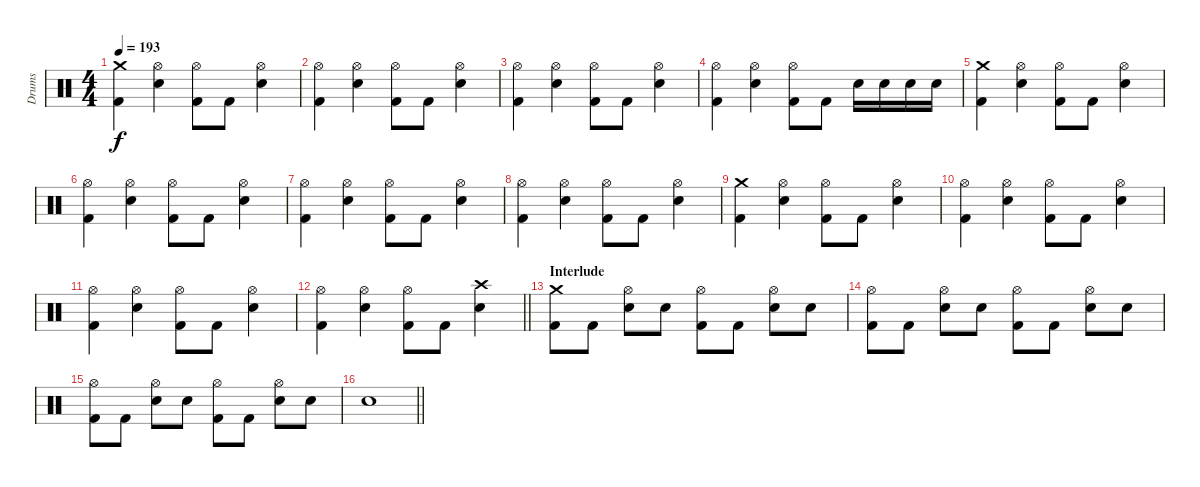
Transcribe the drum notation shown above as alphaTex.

\track ("Drums" "Drums") {instrument percussion}
\staff {score}
\articulation defaults
\ts (4 4)
\tempo 193
\clef neutral
\ks c
("Crash medium (hit)" "Kick (hit) 2").4{dy f} ("Hi-Hat (open)" "Electric Snare (hit)").4 ("Hi-Hat (open)" "Kick (hit) 2").8 "Kick (hit) 2".8 ("Hi-Hat (open)" "Electric Snare (hit)").4 |
("Hi-Hat (open)" "Kick (hit) 2").4 ("Hi-Hat (open)" "Electric Snare (hit)").4 ("Hi-Hat (open)" "Kick (hit) 2").8 "Kick (hit) 2".8 ("Hi-Hat (open)" "Electric Snare (hit)").4 |
("Hi-Hat (open)" "Kick (hit) 2").4 ("Hi-Hat (open)" "Electric Snare (hit)").4 ("Hi-Hat (open)" "Kick (hit) 2").8 "Kick (hit) 2".8 ("Hi-Hat (open)" "Electric Snare (hit)").4 |
("Hi-Hat (open)" "Kick (hit) 2").4 ("Hi-Hat (open)" "Electric Snare (hit)").4 ("Hi-Hat (open)" "Kick (hit) 2").8 "Kick (hit) 2".8 "Electric Snare (hit)".16 "Electric Snare (hit)".16 "Electric Snare (hit)".16 "Electric Snare (hit)".16 |
("Crash medium (hit)" "Kick (hit) 2").4 ("Hi-Hat (open)" "Electric Snare (hit)").4 ("Hi-Hat (open)" "Kick (hit) 2").8 "Kick (hit) 2".8 ("Hi-Hat (open)" "Electric Snare (hit)").4 |
("Hi-Hat (open)" "Kick (hit) 2").4 ("Hi-Hat (open)" "Electric Snare (hit)").4 ("Hi-Hat (open)" "Kick (hit) 2").8 "Kick (hit) 2".8 ("Hi-Hat (open)" "Electric Snare (hit)").4 |
("Hi-Hat (open)" "Kick (hit) 2").4 ("Hi-Hat (open)" "Electric Snare (hit)").4 ("Hi-Hat (open)" "Kick (hit) 2").8 "Kick (hit) 2".8 ("Hi-Hat (open)" "Electric Snare (hit)").4 |
("Hi-Hat (open)" "Kick (hit) 2").4 ("Hi-Hat (open)" "Electric Snare (hit)").4 ("Hi-Hat (open)" "Kick (hit) 2").8 "Kick (hit) 2".8 ("Hi-Hat (open)" "Electric Snare (hit)").4 |
("Crash medium (hit)" "Kick (hit) 2").4 ("Hi-Hat (open)" "Electric Snare (hit)").4 ("Hi-Hat (open)" "Kick (hit) 2").8 "Kick (hit) 2".8 ("Hi-Hat (open)" "Electric Snare (hit)").4 |
("Hi-Hat (open)" "Kick (hit) 2").4 ("Hi-Hat (open)" "Electric Snare (hit)").4 ("Hi-Hat (open)" "Kick (hit) 2").8 "Kick (hit) 2".8 ("Hi-Hat (open)" "Electric Snare (hit)").4 |
("Hi-Hat (open)" "Kick (hit) 2").4 ("Hi-Hat (open)" "Electric Snare (hit)").4 ("Hi-Hat (open)" "Kick (hit) 2").8 "Kick (hit) 2".8 ("Hi-Hat (open)" "Electric Snare (hit)").4 |
\barLineRight lightlight
("Hi-Hat (open)" "Kick (hit) 2").4 ("Hi-Hat (open)" "Electric Snare (hit)").4 ("Hi-Hat (open)" "Kick (hit) 2").8 "Kick (hit) 2".8 ("Crash high (hit)" "Electric Snare (hit)").4 |
\section ("" "Interlude")
("Crash medium (hit)" "Kick (hit) 2").8 "Kick (hit) 2".8 ("Hi-Hat (open)" "Electric Snare (hit)").8 "Electric Snare (hit)".8 ("Hi-Hat (open)" "Kick (hit) 2").8 "Kick (hit) 2".8 ("Hi-Hat (open)" "Electric Snare (hit)").8 "Electric Snare (hit)".8 |
("Hi-Hat (open)" "Kick (hit) 2").8 "Kick (hit) 2".8 ("Hi-Hat (open)" "Electric Snare (hit)").8 "Electric Snare (hit)".8 ("Hi-Hat (open)" "Kick (hit) 2").8 "Kick (hit) 2".8 ("Hi-Hat (open)" "Electric Snare (hit)").8 "Electric Snare (hit)".8 |
("Hi-Hat (open)" "Kick (hit) 2").8 "Kick (hit) 2".8 ("Hi-Hat (open)" "Electric Snare (hit)").8 "Electric Snare (hit)".8 ("Hi-Hat (open)" "Kick (hit) 2").8 "Kick (hit) 2".8 ("Hi-Hat (open)" "Electric Snare (hit)").8 "Electric Snare (hit)".8 |
\barLineRight lightlight "Electric Snare (hit)".1
